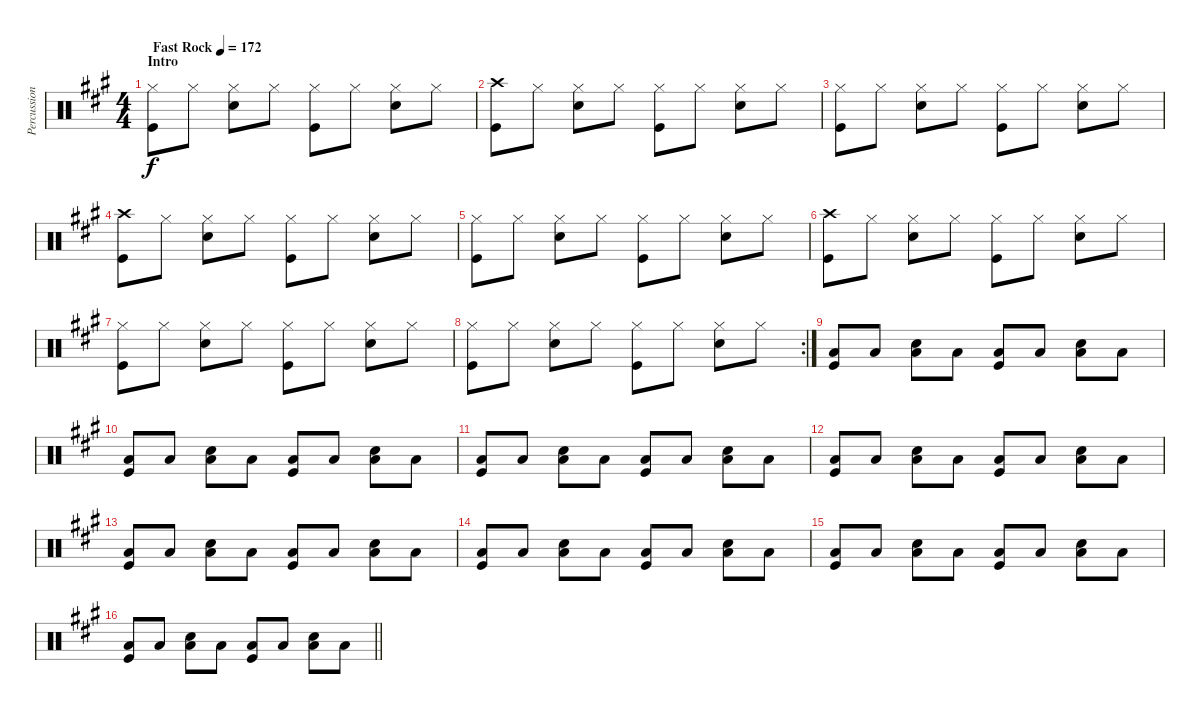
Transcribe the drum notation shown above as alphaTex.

\track ("Percussion" "Percussion") {instrument percussion}
\staff {score}
\articulation defaults
\ts (4 4)
\section ("" "Intro")
\tempo (172 "Fast Rock")
\clef neutral
\ks a
("Hi-Hat (closed)" "Kick (hit)").8{dy f} "Hi-Hat (closed)".8 ("Hi-Hat (closed)" "Snare (hit) 2").8 "Hi-Hat (closed)".8 ("Hi-Hat (closed)" "Kick (hit)").8 "Hi-Hat (closed)".8 ("Hi-Hat (closed)" "Snare (hit) 2").8 "Hi-Hat (closed)".8 |
("Crash high (hit)" "Kick (hit)").8 "Hi-Hat (closed)".8 ("Hi-Hat (closed)" "Snare (hit) 2").8 "Hi-Hat (closed)".8 ("Hi-Hat (closed)" "Kick (hit)").8 "Hi-Hat (closed)".8 ("Hi-Hat (closed)" "Snare (hit) 2").8 "Hi-Hat (closed)".8 |
("Hi-Hat (closed)" "Kick (hit)").8 "Hi-Hat (closed)".8 ("Hi-Hat (closed)" "Snare (hit) 2").8 "Hi-Hat (closed)".8 ("Hi-Hat (closed)" "Kick (hit)").8 "Hi-Hat (closed)".8 ("Hi-Hat (closed)" "Snare (hit) 2").8 "Hi-Hat (closed)".8 |
("Crash high (hit)" "Kick (hit)").8 "Hi-Hat (closed)".8 ("Hi-Hat (closed)" "Snare (hit) 2").8 "Hi-Hat (closed)".8 ("Hi-Hat (closed)" "Kick (hit)").8 "Hi-Hat (closed)".8 ("Hi-Hat (closed)" "Snare (hit) 2").8 "Hi-Hat (closed)".8 |
("Hi-Hat (closed)" "Kick (hit)").8 "Hi-Hat (closed)".8 ("Hi-Hat (closed)" "Snare (hit) 2").8 "Hi-Hat (closed)".8 ("Hi-Hat (closed)" "Kick (hit)").8 "Hi-Hat (closed)".8 ("Hi-Hat (closed)" "Snare (hit) 2").8 "Hi-Hat (closed)".8 |
("Crash high (hit)" "Kick (hit)").8 "Hi-Hat (closed)".8 ("Hi-Hat (closed)" "Snare (hit) 2").8 "Hi-Hat (closed)".8 ("Hi-Hat (closed)" "Kick (hit)").8 "Hi-Hat (closed)".8 ("Hi-Hat (closed)" "Snare (hit) 2").8 "Hi-Hat (closed)".8 |
("Hi-Hat (closed)" "Kick (hit)").8 "Hi-Hat (closed)".8 ("Hi-Hat (closed)" "Snare (hit) 2").8 "Hi-Hat (closed)".8 ("Hi-Hat (closed)" "Kick (hit)").8 "Hi-Hat (closed)".8 ("Hi-Hat (closed)" "Snare (hit) 2").8 "Hi-Hat (closed)".8 |
\rc 2
("Hi-Hat (closed)" "Kick (hit)").8 "Hi-Hat (closed)".8 ("Hi-Hat (closed)" "Snare (hit) 2").8 "Hi-Hat (closed)".8 ("Hi-Hat (closed)" "Kick (hit)").8 "Hi-Hat (closed)".8 ("Hi-Hat (closed)" "Snare (hit) 2").8 "Hi-Hat (closed)".8 |
("Low Floor Tom (hit)" "Kick (hit)").8 "Low Floor Tom (hit)".8 ("Low Floor Tom (hit)" "Snare (hit) 2").8 "Low Floor Tom (hit)".8 ("Low Floor Tom (hit)" "Kick (hit)").8 "Low Floor Tom (hit)".8 ("Low Floor Tom (hit)" "Snare (hit) 2").8 "Low Floor Tom (hit)".8 |
("Low Floor Tom (hit)" "Kick (hit)").8 "Low Floor Tom (hit)".8 ("Low Floor Tom (hit)" "Snare (hit) 2").8 "Low Floor Tom (hit)".8 ("Low Floor Tom (hit)" "Kick (hit)").8 "Low Floor Tom (hit)".8 ("Low Floor Tom (hit)" "Snare (hit) 2").8 "Low Floor Tom (hit)".8 |
("Low Floor Tom (hit)" "Kick (hit)").8 "Low Floor Tom (hit)".8 ("Low Floor Tom (hit)" "Snare (hit) 2").8 "Low Floor Tom (hit)".8 ("Low Floor Tom (hit)" "Kick (hit)").8 "Low Floor Tom (hit)".8 ("Low Floor Tom (hit)" "Snare (hit) 2").8 "Low Floor Tom (hit)".8 |
("Low Floor Tom (hit)" "Kick (hit)").8 "Low Floor Tom (hit)".8 ("Low Floor Tom (hit)" "Snare (hit) 2").8 "Low Floor Tom (hit)".8 ("Low Floor Tom (hit)" "Kick (hit)").8 "Low Floor Tom (hit)".8 ("Low Floor Tom (hit)" "Snare (hit) 2").8 "Low Floor Tom (hit)".8 |
("Low Floor Tom (hit)" "Kick (hit)").8 "Low Floor Tom (hit)".8 ("Low Floor Tom (hit)" "Snare (hit) 2").8 "Low Floor Tom (hit)".8 ("Low Floor Tom (hit)" "Kick (hit)").8 "Low Floor Tom (hit)".8 ("Low Floor Tom (hit)" "Snare (hit) 2").8 "Low Floor Tom (hit)".8 |
("Low Floor Tom (hit)" "Kick (hit)").8 "Low Floor Tom (hit)".8 ("Low Floor Tom (hit)" "Snare (hit) 2").8 "Low Floor Tom (hit)".8 ("Low Floor Tom (hit)" "Kick (hit)").8 "Low Floor Tom (hit)".8 ("Low Floor Tom (hit)" "Snare (hit) 2").8 "Low Floor Tom (hit)".8 |
("Low Floor Tom (hit)" "Kick (hit)").8 "Low Floor Tom (hit)".8 ("Low Floor Tom (hit)" "Snare (hit) 2").8 "Low Floor Tom (hit)".8 ("Low Floor Tom (hit)" "Kick (hit)").8 "Low Floor Tom (hit)".8 ("Low Floor Tom (hit)" "Snare (hit) 2").8 "Low Floor Tom (hit)".8 |
\barLineRight lightlight
("Low Floor Tom (hit)" "Kick (hit)").8 "Low Floor Tom (hit)".8 ("Low Floor Tom (hit)" "Snare (hit) 2").8 "Low Floor Tom (hit)".8 ("Low Floor Tom (hit)" "Kick (hit)").8 "Low Floor Tom (hit)".8 ("Low Floor Tom (hit)" "Snare (hit) 2").8 "Low Floor Tom (hit)".8
